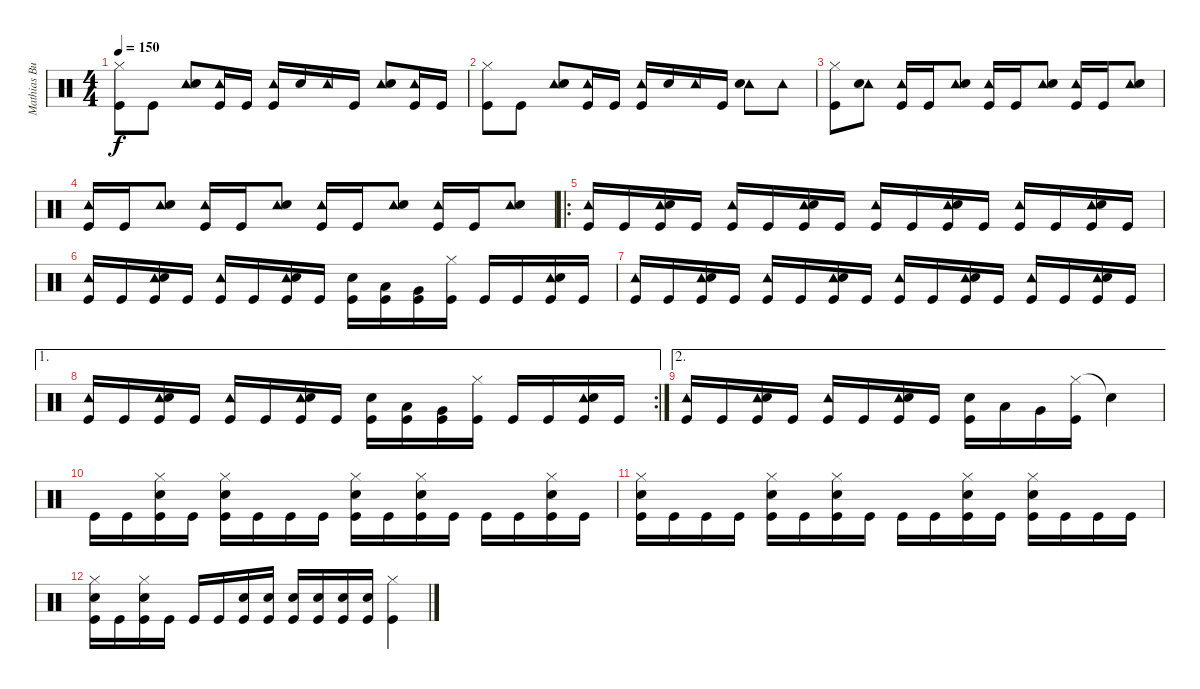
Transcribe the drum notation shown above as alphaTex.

\track ("Mathias Burchardt - batterie" "Mathias Bu") {instrument percussion}
\staff {score}
\articulation defaults
\ts (4 4)
\tempo 150
\clef neutral
\ks c
("Hi-Hat (closed)" "Kick (hit)").8{dy f} "Kick (hit)".8 ("Tambourine (hit)" "Snare (hit) 2").8 ("Tambourine (hit)" "Kick (hit)").16 "Kick (hit)".16 ("Tambourine (hit)" "Kick (hit)").16 "Snare (hit) 2".16 "Tambourine (hit)".16 "Kick (hit)".16 ("Tambourine (hit)" "Snare (hit) 2").8 ("Tambourine (hit)" "Kick (hit)").16 "Kick (hit)".16 |
("Hi-Hat (closed)" "Kick (hit)").8 "Kick (hit)".8 ("Tambourine (hit)" "Snare (hit) 2").8 ("Tambourine (hit)" "Kick (hit)").16 "Kick (hit)".16 ("Tambourine (hit)" "Kick (hit)").16 "Snare (hit) 2".16 "Tambourine (hit)".16 "Kick (hit)".16 ("Tambourine (hit)" "Snare (hit) 2").8 "Tambourine (hit)".8 |
("Hi-Hat (closed)" "Kick (hit)").8 ("Tambourine (hit)" "Snare (hit) 2").8 ("Tambourine (hit)" "Kick (hit)").16 "Kick (hit)".16 ("Tambourine (hit)" "Snare (hit) 2").8 ("Tambourine (hit)" "Kick (hit)").16 "Kick (hit)".16 ("Tambourine (hit)" "Snare (hit) 2").8 ("Tambourine (hit)" "Kick (hit)").16 "Kick (hit)".16 ("Tambourine (hit)" "Snare (hit) 2").8 |
("Tambourine (hit)" "Kick (hit)").16 "Kick (hit)".16 ("Tambourine (hit)" "Snare (hit) 2").8 ("Tambourine (hit)" "Kick (hit)").16 "Kick (hit)".16 ("Tambourine (hit)" "Snare (hit) 2").8 ("Tambourine (hit)" "Kick (hit)").16 "Kick (hit)".16 ("Tambourine (hit)" "Snare (hit) 2").8 ("Tambourine (hit)" "Kick (hit)").16 "Kick (hit)".16 ("Tambourine (hit)" "Snare (hit) 2").8 |
\ro
("Tambourine (hit)" "Kick (hit)").16 "Kick (hit)".16 ("Tambourine (hit)" "Snare (hit) 2" "Kick (hit)").16 "Kick (hit)".16 ("Tambourine (hit)" "Kick (hit)").16 "Kick (hit)".16 ("Tambourine (hit)" "Snare (hit) 2" "Kick (hit)").16 "Kick (hit)".16 ("Tambourine (hit)" "Kick (hit)").16 "Kick (hit)".16 ("Tambourine (hit)" "Snare (hit) 2" "Kick (hit)").16 "Kick (hit)".16 ("Tambourine (hit)" "Kick (hit)").16 "Kick (hit)".16 ("Tambourine (hit)" "Snare (hit) 2" "Kick (hit)").16 "Kick (hit)".16 |
("Tambourine (hit)" "Kick (hit)").16 "Kick (hit)".16 ("Tambourine (hit)" "Snare (hit) 2" "Kick (hit)").16 "Kick (hit)".16 ("Tambourine (hit)" "Kick (hit)").16 "Kick (hit)".16 ("Tambourine (hit)" "Snare (hit) 2" "Kick (hit)").16 "Kick (hit)".16 ("Snare (hit) 2" "Kick (hit)").16 ("Low Tom (hit)" "Kick (hit)").16 ("Very Low Tom (hit)" "Kick (hit)").16 ("Hi-Hat (closed)" "Kick (hit)").16 "Kick (hit)".16 "Kick (hit)".16 ("Tambourine (hit)" "Snare (hit) 2" "Kick (hit)").16 "Kick (hit)".16 |
("Tambourine (hit)" "Kick (hit)").16 "Kick (hit)".16 ("Tambourine (hit)" "Snare (hit) 2" "Kick (hit)").16 "Kick (hit)".16 ("Tambourine (hit)" "Kick (hit)").16 "Kick (hit)".16 ("Tambourine (hit)" "Snare (hit) 2" "Kick (hit)").16 "Kick (hit)".16 ("Tambourine (hit)" "Kick (hit)").16 "Kick (hit)".16 ("Tambourine (hit)" "Snare (hit) 2" "Kick (hit)").16 "Kick (hit)".16 ("Tambourine (hit)" "Kick (hit)").16 "Kick (hit)".16 ("Tambourine (hit)" "Snare (hit) 2" "Kick (hit)").16 "Kick (hit)".16 |
\ae 1
\rc 2
("Tambourine (hit)" "Kick (hit)").16 "Kick (hit)".16 ("Tambourine (hit)" "Snare (hit) 2" "Kick (hit)").16 "Kick (hit)".16 ("Tambourine (hit)" "Kick (hit)").16 "Kick (hit)".16 ("Tambourine (hit)" "Snare (hit) 2" "Kick (hit)").16 "Kick (hit)".16 ("Snare (hit) 2" "Kick (hit)").16 ("Low Tom (hit)" "Kick (hit)").16 ("Very Low Tom (hit)" "Kick (hit)").16 ("Hi-Hat (closed)" "Kick (hit)").16 "Kick (hit)".16 "Kick (hit)".16 ("Tambourine (hit)" "Snare (hit) 2" "Kick (hit)").16 "Kick (hit)".16 |
\ae 2
("Tambourine (hit)" "Kick (hit)").16 "Kick (hit)".16 ("Tambourine (hit)" "Snare (hit) 2" "Kick (hit)").16 "Kick (hit)".16 ("Tambourine (hit)" "Kick (hit)").16 "Kick (hit)".16 ("Tambourine (hit)" "Snare (hit) 2" "Kick (hit)").16 "Kick (hit)".16 ("Snare (hit) 2" "Kick (hit)").16 "Low Tom (hit)".16 "Very Low Tom (hit)".16 ("Hi-Hat (closed)" "Kick (hit)").16 "Snare (hit)"{t}.4 |
"Kick (hit)".16 "Kick (hit)".16 ("Hi-Hat (closed)" "Snare (hit) 2" "Kick (hit)").16 "Kick (hit)".16 ("Hi-Hat (closed)" "Snare (hit) 2" "Kick (hit)").16 "Kick (hit)".16 "Kick (hit)".16 "Kick (hit)".16 ("Hi-Hat (closed)" "Snare (hit) 2" "Kick (hit)").16 "Kick (hit)".16 ("Hi-Hat (closed)" "Snare (hit) 2" "Kick (hit)").16 "Kick (hit)".16 "Kick (hit)".16 "Kick (hit)".16 ("Hi-Hat (closed)" "Snare (hit) 2" "Kick (hit)").16 "Kick (hit)".16 |
("Hi-Hat (closed)" "Snare (hit) 2" "Kick (hit)").16 "Kick (hit)".16 "Kick (hit)".16 "Kick (hit)".16 ("Hi-Hat (closed)" "Snare (hit) 2" "Kick (hit)").16 "Kick (hit)".16 ("Hi-Hat (closed)" "Snare (hit) 2" "Kick (hit)").16 "Kick (hit)".16 "Kick (hit)".16 "Kick (hit)".16 ("Hi-Hat (closed)" "Snare (hit) 2" "Kick (hit)").16 "Kick (hit)".16 ("Hi-Hat (closed)" "Snare (hit) 2" "Kick (hit)").16 "Kick (hit)".16 "Kick (hit)".16 "Kick (hit)".16 |
("Hi-Hat (closed)" "Snare (hit) 2" "Kick (hit)").16 "Kick (hit)".16 ("Hi-Hat (closed)" "Snare (hit) 2" "Kick (hit)").16 "Kick (hit)".16 "Kick (hit)".16 "Kick (hit)".16 ("Snare (hit) 2" "Kick (hit)").16 ("Snare (hit) 2" "Kick (hit)").16 ("Snare (hit) 2" "Kick (hit)").16 ("Snare (hit) 2" "Kick (hit)").16 ("Snare (hit) 2" "Kick (hit)").16 ("Snare (hit) 2" "Kick (hit)").16 ("Hi-Hat (closed)" "Kick (hit)").4
